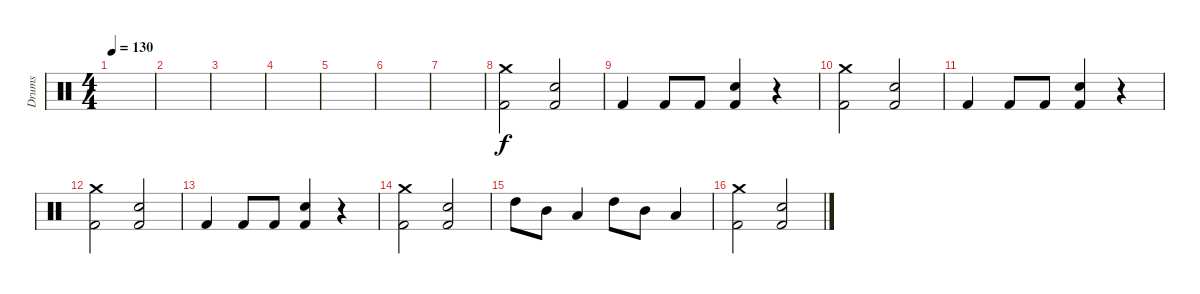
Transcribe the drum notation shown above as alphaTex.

\track ("Drums" "Drums") {instrument percussion}
\staff {score}
\articulation defaults
\ts (4 4)
\tempo 130
\clef neutral
\ks c
|
|
|
|
|
|
|
("Crash medium (hit)" "Kick (hit) 2").2 ("Kick (hit) 2" "Snare (hit) 2").2 |
"Kick (hit) 2".4 "Kick (hit) 2".8 "Kick (hit) 2".8 ("Kick (hit) 2" "Snare (hit) 2").4 r.4 |
("Crash medium (hit)" "Kick (hit) 2").2 ("Kick (hit) 2" "Snare (hit) 2").2 |
"Kick (hit) 2".4 "Kick (hit) 2".8 "Kick (hit) 2".8 ("Kick (hit) 2" "Snare (hit) 2").4 r.4 |
("Crash medium (hit)" "Kick (hit) 2").2 ("Kick (hit) 2" "Snare (hit) 2").2 |
"Kick (hit) 2".4 "Kick (hit) 2".8 "Kick (hit) 2".8 ("Kick (hit) 2" "Snare (hit) 2").4 r.4 |
("Crash medium (hit)" "Kick (hit) 2").2 ("Kick (hit) 2" "Snare (hit) 2").2 |
"High Tom (hit)".8 "Mid Tom (hit)".8 "Low Tom (hit)".4 "High Tom (hit)".8 "Mid Tom (hit)".8 "Low Tom (hit)".4 |
("Crash medium (hit)" "Kick (hit) 2").2 ("Kick (hit) 2" "Snare (hit) 2").2
